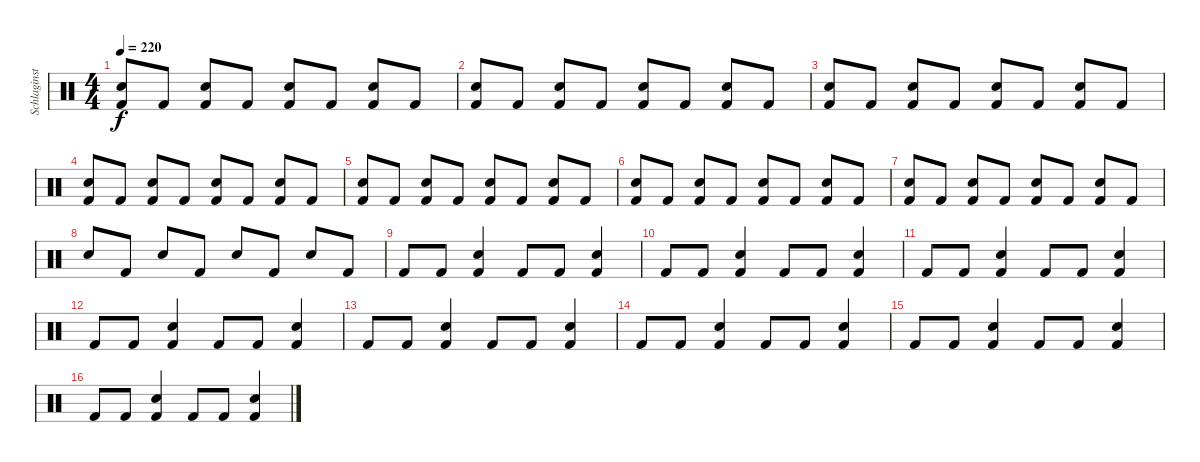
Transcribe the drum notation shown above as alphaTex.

\track ("Schlaginstrumente - Auswahl" "Schlaginst") {instrument percussion}
\staff {score}
\articulation defaults
\ts (4 4)
\tempo 220
\clef neutral
\ks c
("Snare (hit) 2" "Kick (hit) 2").8{dy f} "Kick (hit) 2".8 ("Snare (hit) 2" "Kick (hit) 2").8 "Kick (hit) 2".8 ("Snare (hit) 2" "Kick (hit) 2").8 "Kick (hit) 2".8 ("Snare (hit) 2" "Kick (hit) 2").8 "Kick (hit) 2".8 |
("Snare (hit) 2" "Kick (hit) 2").8 "Kick (hit) 2".8 ("Snare (hit) 2" "Kick (hit) 2").8 "Kick (hit) 2".8 ("Snare (hit) 2" "Kick (hit) 2").8 "Kick (hit) 2".8 ("Snare (hit) 2" "Kick (hit) 2").8 "Kick (hit) 2".8 |
("Snare (hit) 2" "Kick (hit) 2").8 "Kick (hit) 2".8 ("Snare (hit) 2" "Kick (hit) 2").8 "Kick (hit) 2".8 ("Snare (hit) 2" "Kick (hit) 2").8 "Kick (hit) 2".8 ("Snare (hit) 2" "Kick (hit) 2").8 "Kick (hit) 2".8 |
("Snare (hit) 2" "Kick (hit) 2").8 "Kick (hit) 2".8 ("Snare (hit) 2" "Kick (hit) 2").8 "Kick (hit) 2".8 ("Snare (hit) 2" "Kick (hit) 2").8 "Kick (hit) 2".8 ("Snare (hit) 2" "Kick (hit) 2").8 "Kick (hit) 2".8 |
("Snare (hit) 2" "Kick (hit) 2").8 "Kick (hit) 2".8 ("Snare (hit) 2" "Kick (hit) 2").8 "Kick (hit) 2".8 ("Snare (hit) 2" "Kick (hit) 2").8 "Kick (hit) 2".8 ("Snare (hit) 2" "Kick (hit) 2").8 "Kick (hit) 2".8 |
("Snare (hit) 2" "Kick (hit) 2").8 "Kick (hit) 2".8 ("Snare (hit) 2" "Kick (hit) 2").8 "Kick (hit) 2".8 ("Snare (hit) 2" "Kick (hit) 2").8 "Kick (hit) 2".8 ("Snare (hit) 2" "Kick (hit) 2").8 "Kick (hit) 2".8 |
("Snare (hit) 2" "Kick (hit) 2").8 "Kick (hit) 2".8 ("Snare (hit) 2" "Kick (hit) 2").8 "Kick (hit) 2".8 ("Snare (hit) 2" "Kick (hit) 2").8 "Kick (hit) 2".8 ("Snare (hit) 2" "Kick (hit) 2").8 "Kick (hit) 2".8 |
"Snare (hit) 2".8 "Kick (hit) 2".8 "Snare (hit) 2".8 "Kick (hit) 2".8 "Snare (hit) 2".8 "Kick (hit) 2".8 "Snare (hit) 2".8 "Kick (hit) 2".8 |
"Kick (hit) 2".8 "Kick (hit) 2".8 ("Snare (hit) 2" "Kick (hit) 2").4 "Kick (hit) 2".8 "Kick (hit) 2".8 ("Snare (hit) 2" "Kick (hit) 2").4 |
"Kick (hit) 2".8 "Kick (hit) 2".8 ("Snare (hit) 2" "Kick (hit) 2").4 "Kick (hit) 2".8 "Kick (hit) 2".8 ("Snare (hit) 2" "Kick (hit) 2").4 |
"Kick (hit) 2".8 "Kick (hit) 2".8 ("Snare (hit) 2" "Kick (hit) 2").4 "Kick (hit) 2".8 "Kick (hit) 2".8 ("Snare (hit) 2" "Kick (hit) 2").4 |
"Kick (hit) 2".8 "Kick (hit) 2".8 ("Snare (hit) 2" "Kick (hit) 2").4 "Kick (hit) 2".8 "Kick (hit) 2".8 ("Snare (hit) 2" "Kick (hit) 2").4 |
"Kick (hit) 2".8 "Kick (hit) 2".8 ("Snare (hit) 2" "Kick (hit) 2").4 "Kick (hit) 2".8 "Kick (hit) 2".8 ("Snare (hit) 2" "Kick (hit) 2").4 |
"Kick (hit) 2".8 "Kick (hit) 2".8 ("Snare (hit) 2" "Kick (hit) 2").4 "Kick (hit) 2".8 "Kick (hit) 2".8 ("Snare (hit) 2" "Kick (hit) 2").4 |
"Kick (hit) 2".8 "Kick (hit) 2".8 ("Snare (hit) 2" "Kick (hit) 2").4 "Kick (hit) 2".8 "Kick (hit) 2".8 ("Snare (hit) 2" "Kick (hit) 2").4 |
"Kick (hit) 2".8 "Kick (hit) 2".8 ("Snare (hit) 2" "Kick (hit) 2").4 "Kick (hit) 2".8 "Kick (hit) 2".8 ("Snare (hit) 2" "Kick (hit) 2").4
